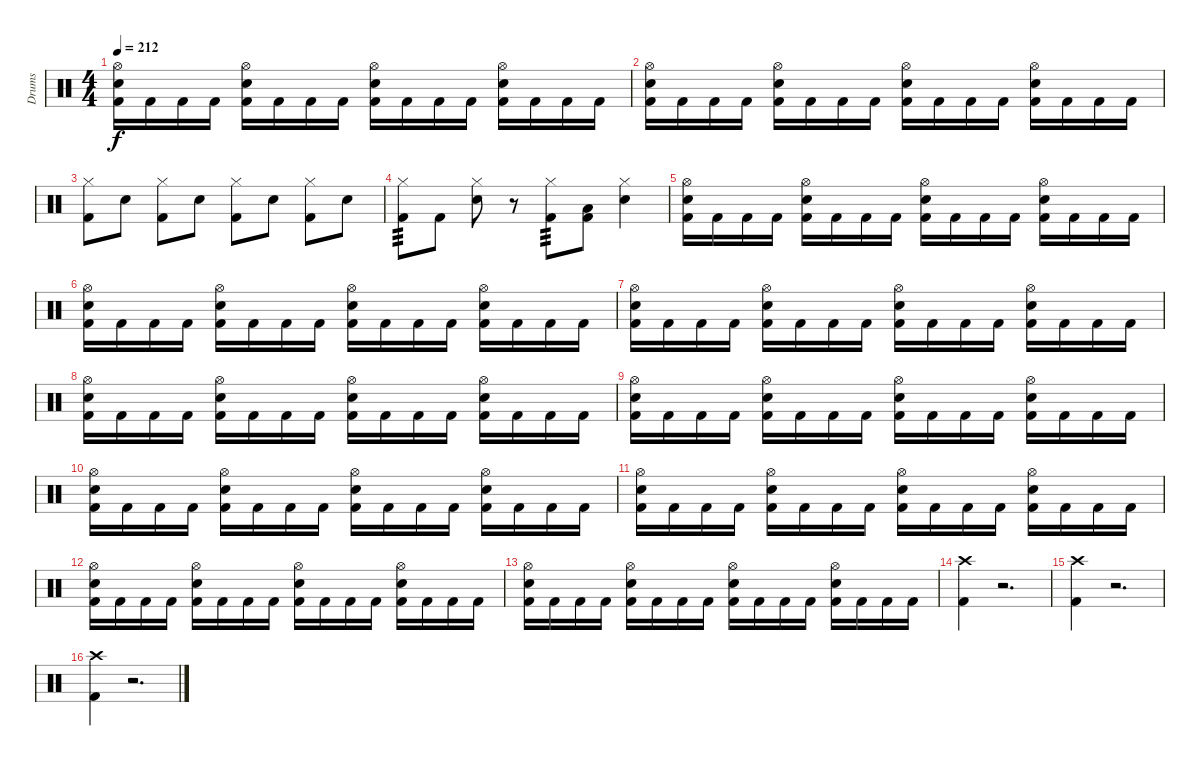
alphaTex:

\track ("Drums" "Drums") {instrument percussion}
\staff {score}
\articulation defaults
\ts (4 4)
\tempo 212
\clef neutral
\ks c
("Hi-Hat (open)" "Snare (hit) 2" "Kick (hit) 2").16{dy f} "Kick (hit) 2".16 "Kick (hit) 2".16 "Kick (hit) 2".16 ("Hi-Hat (open)" "Snare (hit) 2" "Kick (hit) 2").16 "Kick (hit) 2".16 "Kick (hit) 2".16 "Kick (hit) 2".16 ("Hi-Hat (open)" "Snare (hit) 2" "Kick (hit) 2").16 "Kick (hit) 2".16 "Kick (hit) 2".16 "Kick (hit) 2".16 ("Hi-Hat (open)" "Snare (hit) 2" "Kick (hit) 2").16 "Kick (hit) 2".16 "Kick (hit) 2".16 "Kick (hit) 2".16 |
("Hi-Hat (open)" "Snare (hit) 2" "Kick (hit) 2").16 "Kick (hit) 2".16 "Kick (hit) 2".16 "Kick (hit) 2".16 ("Hi-Hat (open)" "Snare (hit) 2" "Kick (hit) 2").16 "Kick (hit) 2".16 "Kick (hit) 2".16 "Kick (hit) 2".16 ("Hi-Hat (open)" "Snare (hit) 2" "Kick (hit) 2").16 "Kick (hit) 2".16 "Kick (hit) 2".16 "Kick (hit) 2".16 ("Hi-Hat (open)" "Snare (hit) 2" "Kick (hit) 2").16 "Kick (hit) 2".16 "Kick (hit) 2".16 "Kick (hit) 2".16 |
("Hi-Hat (closed)" "Kick (hit) 2").8 "Snare (hit) 2".8 ("Hi-Hat (closed)" "Kick (hit) 2").8 "Snare (hit) 2".8 ("Hi-Hat (closed)" "Kick (hit) 2").8 "Snare (hit) 2".8 ("Hi-Hat (closed)" "Kick (hit) 2").8 "Snare (hit) 2".8 |
("Hi-Hat (closed)" "Kick (hit) 2").8{tp 3} "Kick (hit) 2".8 ("Hi-Hat (closed)" "Snare (hit) 2").8 r.8 ("Hi-Hat (closed)" "Kick (hit) 2").8{tp 3} ("Low Tom (hit)" "Kick (hit) 2").8 ("Hi-Hat (closed)" "Snare (hit) 2").4 |
("Hi-Hat (open)" "Snare (hit) 2" "Kick (hit) 2").16 "Kick (hit) 2".16 "Kick (hit) 2".16 "Kick (hit) 2".16 ("Hi-Hat (open)" "Snare (hit) 2" "Kick (hit) 2").16 "Kick (hit) 2".16 "Kick (hit) 2".16 "Kick (hit) 2".16 ("Hi-Hat (open)" "Snare (hit) 2" "Kick (hit) 2").16 "Kick (hit) 2".16 "Kick (hit) 2".16 "Kick (hit) 2".16 ("Hi-Hat (open)" "Snare (hit) 2" "Kick (hit) 2").16 "Kick (hit) 2".16 "Kick (hit) 2".16 "Kick (hit) 2".16 |
("Hi-Hat (open)" "Snare (hit) 2" "Kick (hit) 2").16 "Kick (hit) 2".16 "Kick (hit) 2".16 "Kick (hit) 2".16 ("Hi-Hat (open)" "Snare (hit) 2" "Kick (hit) 2").16 "Kick (hit) 2".16 "Kick (hit) 2".16 "Kick (hit) 2".16 ("Hi-Hat (open)" "Snare (hit) 2" "Kick (hit) 2").16 "Kick (hit) 2".16 "Kick (hit) 2".16 "Kick (hit) 2".16 ("Hi-Hat (open)" "Snare (hit) 2" "Kick (hit) 2").16 "Kick (hit) 2".16 "Kick (hit) 2".16 "Kick (hit) 2".16 |
("Hi-Hat (open)" "Snare (hit) 2" "Kick (hit) 2").16 "Kick (hit) 2".16 "Kick (hit) 2".16 "Kick (hit) 2".16 ("Hi-Hat (open)" "Snare (hit) 2" "Kick (hit) 2").16 "Kick (hit) 2".16 "Kick (hit) 2".16 "Kick (hit) 2".16 ("Hi-Hat (open)" "Snare (hit) 2" "Kick (hit) 2").16 "Kick (hit) 2".16 "Kick (hit) 2".16 "Kick (hit) 2".16 ("Hi-Hat (open)" "Snare (hit) 2" "Kick (hit) 2").16 "Kick (hit) 2".16 "Kick (hit) 2".16 "Kick (hit) 2".16 |
("Hi-Hat (open)" "Snare (hit) 2" "Kick (hit) 2").16 "Kick (hit) 2".16 "Kick (hit) 2".16 "Kick (hit) 2".16 ("Hi-Hat (open)" "Snare (hit) 2" "Kick (hit) 2").16 "Kick (hit) 2".16 "Kick (hit) 2".16 "Kick (hit) 2".16 ("Hi-Hat (open)" "Snare (hit) 2" "Kick (hit) 2").16 "Kick (hit) 2".16 "Kick (hit) 2".16 "Kick (hit) 2".16 ("Hi-Hat (open)" "Snare (hit) 2" "Kick (hit) 2").16 "Kick (hit) 2".16 "Kick (hit) 2".16 "Kick (hit) 2".16 |
("Hi-Hat (open)" "Snare (hit) 2" "Kick (hit) 2").16 "Kick (hit) 2".16 "Kick (hit) 2".16 "Kick (hit) 2".16 ("Hi-Hat (open)" "Snare (hit) 2" "Kick (hit) 2").16 "Kick (hit) 2".16 "Kick (hit) 2".16 "Kick (hit) 2".16 ("Hi-Hat (open)" "Snare (hit) 2" "Kick (hit) 2").16 "Kick (hit) 2".16 "Kick (hit) 2".16 "Kick (hit) 2".16 ("Hi-Hat (open)" "Snare (hit) 2" "Kick (hit) 2").16 "Kick (hit) 2".16 "Kick (hit) 2".16 "Kick (hit) 2".16 |
("Hi-Hat (open)" "Snare (hit) 2" "Kick (hit) 2").16 "Kick (hit) 2".16 "Kick (hit) 2".16 "Kick (hit) 2".16 ("Hi-Hat (open)" "Snare (hit) 2" "Kick (hit) 2").16 "Kick (hit) 2".16 "Kick (hit) 2".16 "Kick (hit) 2".16 ("Hi-Hat (open)" "Snare (hit) 2" "Kick (hit) 2").16 "Kick (hit) 2".16 "Kick (hit) 2".16 "Kick (hit) 2".16 ("Hi-Hat (open)" "Snare (hit) 2" "Kick (hit) 2").16 "Kick (hit) 2".16 "Kick (hit) 2".16 "Kick (hit) 2".16 |
("Hi-Hat (open)" "Snare (hit) 2" "Kick (hit) 2").16 "Kick (hit) 2".16 "Kick (hit) 2".16 "Kick (hit) 2".16 ("Hi-Hat (open)" "Snare (hit) 2" "Kick (hit) 2").16 "Kick (hit) 2".16 "Kick (hit) 2".16 "Kick (hit) 2".16 ("Hi-Hat (open)" "Snare (hit) 2" "Kick (hit) 2").16 "Kick (hit) 2".16 "Kick (hit) 2".16 "Kick (hit) 2".16 ("Hi-Hat (open)" "Snare (hit) 2" "Kick (hit) 2").16 "Kick (hit) 2".16 "Kick (hit) 2".16 "Kick (hit) 2".16 |
("Hi-Hat (open)" "Snare (hit) 2" "Kick (hit) 2").16 "Kick (hit) 2".16 "Kick (hit) 2".16 "Kick (hit) 2".16 ("Hi-Hat (open)" "Snare (hit) 2" "Kick (hit) 2").16 "Kick (hit) 2".16 "Kick (hit) 2".16 "Kick (hit) 2".16 ("Hi-Hat (open)" "Snare (hit) 2" "Kick (hit) 2").16 "Kick (hit) 2".16 "Kick (hit) 2".16 "Kick (hit) 2".16 ("Hi-Hat (open)" "Snare (hit) 2" "Kick (hit) 2").16 "Kick (hit) 2".16 "Kick (hit) 2".16 "Kick (hit) 2".16 |
("Hi-Hat (open)" "Snare (hit) 2" "Kick (hit) 2").16 "Kick (hit) 2".16 "Kick (hit) 2".16 "Kick (hit) 2".16 ("Hi-Hat (open)" "Snare (hit) 2" "Kick (hit) 2").16 "Kick (hit) 2".16 "Kick (hit) 2".16 "Kick (hit) 2".16 ("Hi-Hat (open)" "Snare (hit) 2" "Kick (hit) 2").16 "Kick (hit) 2".16 "Kick (hit) 2".16 "Kick (hit) 2".16 ("Hi-Hat (open)" "Snare (hit) 2" "Kick (hit) 2").16 "Kick (hit) 2".16 "Kick (hit) 2".16 "Kick (hit) 2".16 |
("Crash high (hit)" "Kick (hit) 2").4 r.2{d} |
("Crash high (hit)" "Kick (hit) 2").4 r.2{d} |
("Crash high (hit)" "Kick (hit) 2").4 r.2{d}
